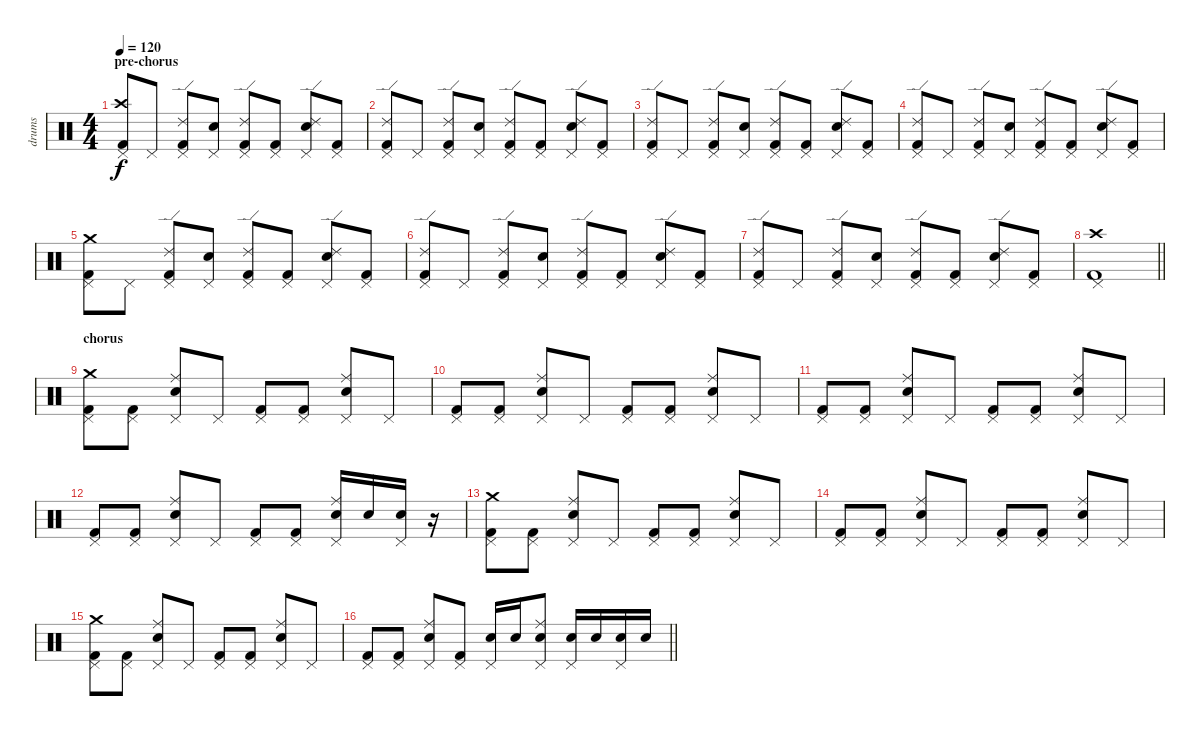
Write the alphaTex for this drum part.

\track ("drums" "drums") {instrument percussion}
\staff {score}
\articulation defaults
\ts (4 4)
\section ("" "pre-chorus")
\tempo 120
\clef neutral
\ks c
("Pedal Hi-Hat (hit)" "Crash high (hit)" "Kick (hit) 2").8{dy f} "Pedal Hi-Hat (hit)".8 ("Pedal Hi-Hat (hit)" "Ride (edge) 2" "Kick (hit) 2").8 ("Pedal Hi-Hat (hit)" "Snare (hit) 2").8 ("Pedal Hi-Hat (hit)" "Ride (edge) 2" "Kick (hit) 2").8 ("Pedal Hi-Hat (hit)" "Kick (hit) 2").8 ("Pedal Hi-Hat (hit)" "Ride (edge) 2" "Snare (hit) 2").8 ("Pedal Hi-Hat (hit)" "Kick (hit) 2").8 |
("Pedal Hi-Hat (hit)" "Ride (edge) 2" "Kick (hit) 2").8 "Pedal Hi-Hat (hit)".8 ("Pedal Hi-Hat (hit)" "Ride (edge) 2" "Kick (hit) 2").8 ("Pedal Hi-Hat (hit)" "Snare (hit) 2").8 ("Pedal Hi-Hat (hit)" "Ride (edge) 2" "Kick (hit) 2").8 ("Pedal Hi-Hat (hit)" "Kick (hit) 2").8 ("Pedal Hi-Hat (hit)" "Ride (edge) 2" "Snare (hit) 2").8 ("Pedal Hi-Hat (hit)" "Kick (hit) 2").8 |
("Pedal Hi-Hat (hit)" "Ride (edge) 2" "Kick (hit) 2").8 "Pedal Hi-Hat (hit)".8 ("Pedal Hi-Hat (hit)" "Ride (edge) 2" "Kick (hit) 2").8 ("Pedal Hi-Hat (hit)" "Snare (hit) 2").8 ("Pedal Hi-Hat (hit)" "Ride (edge) 2" "Kick (hit) 2").8 ("Pedal Hi-Hat (hit)" "Kick (hit) 2").8 ("Pedal Hi-Hat (hit)" "Ride (edge) 2" "Snare (hit) 2").8 ("Pedal Hi-Hat (hit)" "Kick (hit) 2").8 |
("Pedal Hi-Hat (hit)" "Ride (edge) 2" "Kick (hit) 2").8 "Pedal Hi-Hat (hit)".8 ("Pedal Hi-Hat (hit)" "Ride (edge) 2" "Kick (hit) 2").8 ("Pedal Hi-Hat (hit)" "Snare (hit) 2").8 ("Pedal Hi-Hat (hit)" "Ride (edge) 2" "Kick (hit) 2").8 ("Pedal Hi-Hat (hit)" "Kick (hit) 2").8 ("Pedal Hi-Hat (hit)" "Ride (edge) 2" "Snare (hit) 2").8 ("Pedal Hi-Hat (hit)" "Kick (hit) 2").8 |
("Pedal Hi-Hat (hit)" "Crash medium (hit)" "Kick (hit) 2").8 "Pedal Hi-Hat (hit)".8 ("Pedal Hi-Hat (hit)" "Ride (edge) 2" "Kick (hit) 2").8 ("Pedal Hi-Hat (hit)" "Snare (hit) 2").8 ("Pedal Hi-Hat (hit)" "Ride (edge) 2" "Kick (hit) 2").8 ("Pedal Hi-Hat (hit)" "Kick (hit) 2").8 ("Pedal Hi-Hat (hit)" "Ride (edge) 2" "Snare (hit) 2").8 ("Pedal Hi-Hat (hit)" "Kick (hit) 2").8 |
("Pedal Hi-Hat (hit)" "Ride (edge) 2" "Kick (hit) 2").8 "Pedal Hi-Hat (hit)".8 ("Pedal Hi-Hat (hit)" "Ride (edge) 2" "Kick (hit) 2").8 ("Pedal Hi-Hat (hit)" "Snare (hit) 2").8 ("Pedal Hi-Hat (hit)" "Ride (edge) 2" "Kick (hit) 2").8 ("Pedal Hi-Hat (hit)" "Kick (hit) 2").8 ("Pedal Hi-Hat (hit)" "Ride (edge) 2" "Snare (hit) 2").8 ("Pedal Hi-Hat (hit)" "Kick (hit) 2").8 |
("Pedal Hi-Hat (hit)" "Ride (edge) 2" "Kick (hit) 2").8 "Pedal Hi-Hat (hit)".8 ("Pedal Hi-Hat (hit)" "Ride (edge) 2" "Kick (hit) 2").8 ("Pedal Hi-Hat (hit)" "Snare (hit) 2").8 ("Pedal Hi-Hat (hit)" "Ride (edge) 2" "Kick (hit) 2").8 ("Pedal Hi-Hat (hit)" "Kick (hit) 2").8 ("Pedal Hi-Hat (hit)" "Ride (edge) 2" "Snare (hit) 2").8 ("Pedal Hi-Hat (hit)" "Kick (hit) 2").8 |
\barLineRight lightlight
("Pedal Hi-Hat (hit)" "Crash high (hit)" "Kick (hit) 2").1 |
\section ("" "chorus")
("Pedal Hi-Hat (hit)" "Crash medium (hit)" "Kick (hit) 2").8 ("Pedal Hi-Hat (hit)" "Kick (hit) 2").8 ("Pedal Hi-Hat (hit)" "Ride (middle)" "Snare (hit) 2").8 "Pedal Hi-Hat (hit)".8 ("Pedal Hi-Hat (hit)" "Kick (hit) 2").8 ("Pedal Hi-Hat (hit)" "Kick (hit) 2").8 ("Pedal Hi-Hat (hit)" "Ride (middle)" "Snare (hit) 2").8 "Pedal Hi-Hat (hit)".8 |
("Pedal Hi-Hat (hit)" "Kick (hit) 2").8 ("Pedal Hi-Hat (hit)" "Kick (hit) 2").8 ("Pedal Hi-Hat (hit)" "Ride (middle)" "Snare (hit) 2").8 "Pedal Hi-Hat (hit)".8 ("Pedal Hi-Hat (hit)" "Kick (hit) 2").8 ("Pedal Hi-Hat (hit)" "Kick (hit) 2").8 ("Pedal Hi-Hat (hit)" "Ride (middle)" "Snare (hit) 2").8 "Pedal Hi-Hat (hit)".8 |
("Pedal Hi-Hat (hit)" "Kick (hit) 2").8 ("Pedal Hi-Hat (hit)" "Kick (hit) 2").8 ("Pedal Hi-Hat (hit)" "Ride (middle)" "Snare (hit) 2").8 "Pedal Hi-Hat (hit)".8 ("Pedal Hi-Hat (hit)" "Kick (hit) 2").8 ("Pedal Hi-Hat (hit)" "Kick (hit) 2").8 ("Pedal Hi-Hat (hit)" "Ride (middle)" "Snare (hit) 2").8 "Pedal Hi-Hat (hit)".8 |
("Pedal Hi-Hat (hit)" "Kick (hit) 2").8 ("Pedal Hi-Hat (hit)" "Kick (hit) 2").8 ("Pedal Hi-Hat (hit)" "Ride (middle)" "Snare (hit) 2").8 "Pedal Hi-Hat (hit)".8 ("Pedal Hi-Hat (hit)" "Kick (hit) 2").8 ("Pedal Hi-Hat (hit)" "Kick (hit) 2").8 ("Pedal Hi-Hat (hit)" "Ride (middle)" "Snare (hit) 2").16 "Snare (hit) 2".16 ("Pedal Hi-Hat (hit)" "Snare (hit) 2").16 r.16 |
("Pedal Hi-Hat (hit)" "Crash medium (hit)" "Kick (hit) 2").8 ("Pedal Hi-Hat (hit)" "Kick (hit) 2").8 ("Pedal Hi-Hat (hit)" "Ride (middle)" "Snare (hit) 2").8 "Pedal Hi-Hat (hit)".8 ("Pedal Hi-Hat (hit)" "Kick (hit) 2").8 ("Pedal Hi-Hat (hit)" "Kick (hit) 2").8 ("Pedal Hi-Hat (hit)" "Ride (middle)" "Snare (hit) 2").8 "Pedal Hi-Hat (hit)".8 |
("Pedal Hi-Hat (hit)" "Kick (hit) 2").8 ("Pedal Hi-Hat (hit)" "Kick (hit) 2").8 ("Pedal Hi-Hat (hit)" "Ride (middle)" "Snare (hit) 2").8 "Pedal Hi-Hat (hit)".8 ("Pedal Hi-Hat (hit)" "Kick (hit) 2").8 ("Pedal Hi-Hat (hit)" "Kick (hit) 2").8 ("Pedal Hi-Hat (hit)" "Ride (middle)" "Snare (hit) 2").8 "Pedal Hi-Hat (hit)".8 |
("Pedal Hi-Hat (hit)" "Crash medium (hit)" "Kick (hit) 2").8 ("Pedal Hi-Hat (hit)" "Kick (hit) 2").8 ("Pedal Hi-Hat (hit)" "Ride (middle)" "Snare (hit) 2").8 "Pedal Hi-Hat (hit)".8 ("Pedal Hi-Hat (hit)" "Kick (hit) 2").8 ("Pedal Hi-Hat (hit)" "Kick (hit) 2").8 ("Pedal Hi-Hat (hit)" "Ride (middle)" "Snare (hit) 2").8 "Pedal Hi-Hat (hit)".8 |
\barLineRight lightlight
("Pedal Hi-Hat (hit)" "Kick (hit) 2").8 ("Pedal Hi-Hat (hit)" "Kick (hit) 2").8 ("Pedal Hi-Hat (hit)" "Ride (middle)" "Snare (hit) 2").8 ("Pedal Hi-Hat (hit)" "Kick (hit) 2").8 ("Pedal Hi-Hat (hit)" "Snare (hit) 2").16 "Snare (hit) 2".16 ("Pedal Hi-Hat (hit)" "Ride (middle)" "Snare (hit) 2").8 ("Pedal Hi-Hat (hit)" "Snare (hit) 2").16 "Snare (hit) 2".16 ("Pedal Hi-Hat (hit)" "Snare (hit) 2").16 "Snare (hit) 2".16
